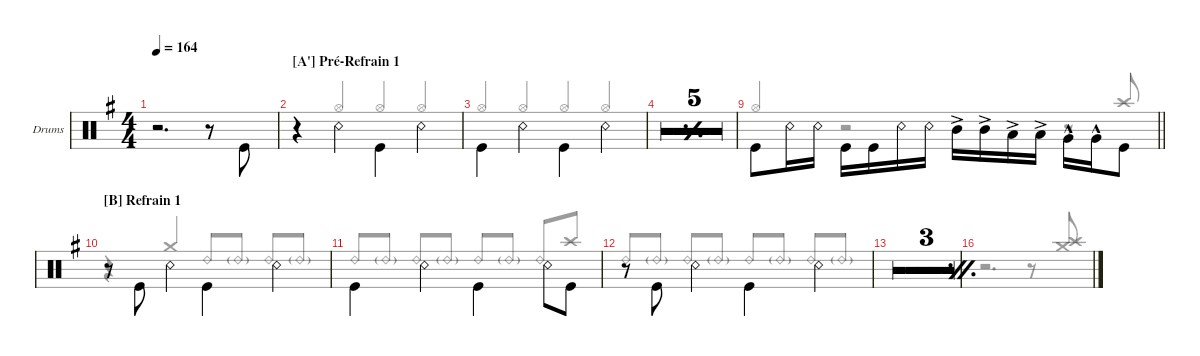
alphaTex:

\defaultSystemsLayout 4
\hideDynamics
\bracketExtendMode groupsimilarinstruments
\firstSystemTrackNameOrientation horizontal
\otherSystemsTrackNameOrientation horizontal
\track ("Drumkit" "Drums") {multiBarRest instrument percussion}
\staff {score}
\articulation defaults
\voice
\ts (4 4)
\tempo 164
\clef neutral
\ks eminor
r.2{d dy ff} r.8 "Kick (hit)".8{beam invert} |
\section ("A'" "Pré-Refrain 1")
r.4 "Snare (rim shot)".4{beam invert} "Kick (hit)".4{beam invert} "Snare (rim shot)".4{beam invert} |
"Kick (hit)".4{beam invert} "Snare (rim shot)".4{beam invert} "Kick (hit)".4{beam invert} "Snare (rim shot)".4{beam invert} |
\simile simple
|
|
|
|
|
\simile none
\barLineRight lightlight "Kick (hit)".8{beam invert} "Snare (rim shot)".16 "Snare (rim shot)".16 "Kick (hit)".16{beam invert} "Kick (hit)".16 "Snare (rim shot)".16 "Snare (rim shot)".16 "Mid Tom (hit)"{ac}.16{beam invert} "Mid Tom (hit)"{ac}.16 "Low Tom (hit)"{ac}.16 "Low Tom (hit)"{ac}.16 "Very Low Tom (hit)"{hac}.16{beam invert} "Very Low Tom (hit)"{hac}.16 "Kick (hit)".8
|
\section ("B" "Refrain 1")
r.8 "Kick (hit)".8{beam invert} "Snare (rim shot)".4{beam invert} "Kick (hit)".4{beam invert} "Snare (rim shot)".4{beam invert} |
"Kick (hit)".4{beam invert} "Snare (rim shot)".4{beam invert} "Kick (hit)".4{beam invert} "Snare (rim shot)".8{beam invert} "Kick (hit)".8 |
r.8 "Kick (hit)".8{beam invert} "Snare (rim shot)".4{beam invert} "Kick (hit)".4{beam invert} "Snare (rim shot)".4{beam invert} |
\simile firstofdouble
|
\simile secondofdouble
|
\simile firstofdouble
|
\simile secondofdouble
\voice
\clef neutral
\ottava regular
\simile none
\ks eminor
r.2{d dy f} r.8 ("Crash high (hit)" "Crash medium (hit)").8{beam invert} |
r.4 "Hi-Hat (open)".4{beam invert} "Hi-Hat (open)".4{beam invert} "Hi-Hat (open)".4{beam invert} |
"Hi-Hat (open)".4{beam invert} "Hi-Hat (open)".4{beam invert} "Hi-Hat (open)".4{beam invert} "Hi-Hat (open)".4{beam invert} |
\simile simple
|
|
|
|
|
\simile none
\barLineRight lightlight "Hi-Hat (open)".4{beam invert}
r.2 r.8 "Crash high (hit)".8{beam invert} |
r.4 "Crash medium (hit)".4{beam invert} "Ride (bell) 2".8{dy mf beam invert} "Ride (bell) 2"{g}.8 "Ride (bell) 2".8{beam invert} "Ride (bell) 2"{g}.8 |
"Ride (bell) 2".8{beam invert} "Ride (bell) 2"{g}.8 "Ride (bell) 2".8{beam invert} "Ride (bell) 2"{g}.8 "Ride (bell) 2".8{beam invert} "Ride (bell) 2"{g}.8 "Ride (bell) 2".8{beam invert} "Crash high (hit)".8{dy f} |
"Ride (bell) 2".8{dy mf beam invert} "Ride (bell) 2"{g}.8 "Ride (bell) 2".8{beam invert} "Ride (bell) 2"{g}.8 "Ride (bell) 2".8{beam invert} "Ride (bell) 2"{g}.8 "Ride (bell) 2".8{beam invert} "Ride (bell) 2"{g}.8 |
\simile firstofdouble
|
\simile secondofdouble
|
\simile firstofdouble
|
\simile secondofdouble
